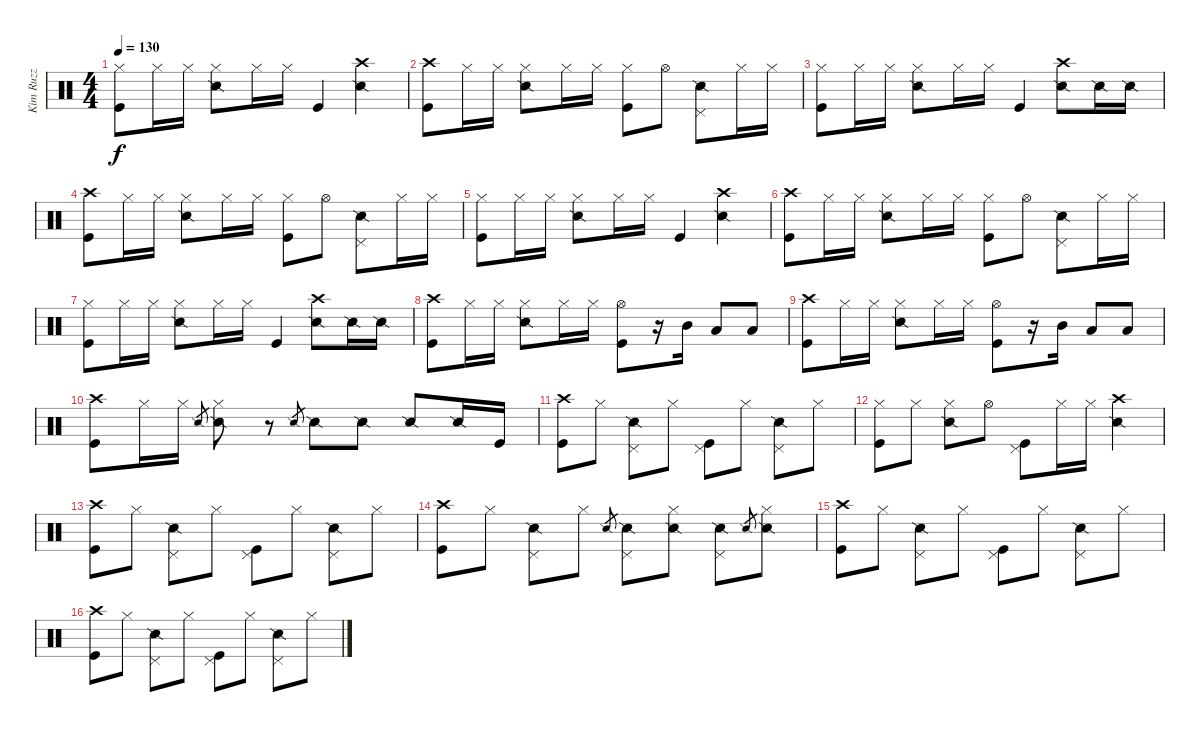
\track ("Kim Ruzz" "Kim Ruzz") {instrument percussion}
\staff {score}
\articulation defaults
\ts (4 4)
\tempo 130
\clef neutral
\ks c
("Hi-Hat (closed)" "Kick (hit)").8{dy f} "Hi-Hat (closed)".16 "Hi-Hat (closed)".16 ("Hi-Hat (closed)" "Snare (side stick) 2").8 "Hi-Hat (closed)".16 "Hi-Hat (closed)".16 "Kick (hit)".4 ("Crash high (hit)" "Snare (side stick) 2").4 |
("Crash high (hit)" "Kick (hit)").8 "Hi-Hat (closed)".16 "Hi-Hat (closed)".16 ("Hi-Hat (closed)" "Snare (side stick) 2").8 "Hi-Hat (closed)".16 "Hi-Hat (closed)".16 ("Hi-Hat (closed)" "Kick (hit)").8 "Hi-Hat (open)".8 ("Pedal Hi-Hat (hit)" "Snare (side stick) 2").8 "Hi-Hat (closed)".16 "Hi-Hat (closed)".16 |
("Hi-Hat (closed)" "Kick (hit)").8 "Hi-Hat (closed)".16 "Hi-Hat (closed)".16 ("Hi-Hat (closed)" "Snare (side stick) 2").8 "Hi-Hat (closed)".16 "Hi-Hat (closed)".16 "Kick (hit)".4 ("Crash high (hit)" "Snare (side stick) 2").8 "Snare (side stick) 2".16 "Snare (side stick) 2".16 |
("Crash high (hit)" "Kick (hit)").8 "Hi-Hat (closed)".16 "Hi-Hat (closed)".16 ("Hi-Hat (closed)" "Snare (side stick) 2").8 "Hi-Hat (closed)".16 "Hi-Hat (closed)".16 ("Hi-Hat (closed)" "Kick (hit)").8 "Hi-Hat (open)".8 ("Pedal Hi-Hat (hit)" "Snare (side stick) 2").8 "Hi-Hat (closed)".16 "Hi-Hat (closed)".16 |
("Hi-Hat (closed)" "Kick (hit)").8 "Hi-Hat (closed)".16 "Hi-Hat (closed)".16 ("Hi-Hat (closed)" "Snare (side stick) 2").8 "Hi-Hat (closed)".16 "Hi-Hat (closed)".16 "Kick (hit)".4 ("Crash high (hit)" "Snare (side stick) 2").4 |
("Crash high (hit)" "Kick (hit)").8 "Hi-Hat (closed)".16 "Hi-Hat (closed)".16 ("Hi-Hat (closed)" "Snare (side stick) 2").8 "Hi-Hat (closed)".16 "Hi-Hat (closed)".16 ("Hi-Hat (closed)" "Kick (hit)").8 "Hi-Hat (open)".8 ("Pedal Hi-Hat (hit)" "Snare (side stick) 2").8 "Hi-Hat (closed)".16 "Hi-Hat (closed)".16 |
("Hi-Hat (closed)" "Kick (hit)").8 "Hi-Hat (closed)".16 "Hi-Hat (closed)".16 ("Hi-Hat (closed)" "Snare (side stick) 2").8 "Hi-Hat (closed)".16 "Hi-Hat (closed)".16 "Kick (hit)".4 ("Crash high (hit)" "Snare (side stick) 2").8 "Snare (side stick) 2".16 "Snare (side stick) 2".16 |
("Crash high (hit)" "Kick (hit)").8 "Hi-Hat (closed)".16 "Hi-Hat (closed)".16 ("Hi-Hat (closed)" "Snare (side stick) 2").8 "Hi-Hat (closed)".16 "Hi-Hat (closed)".16 ("Hi-Hat (open)" "Kick (hit)").8 r.16 "Mid Tom (hit)".16 "Low Tom (hit)".8 "Low Tom (hit)".8 |
("Crash high (hit)" "Kick (hit)").8 "Hi-Hat (closed)".16 "Hi-Hat (closed)".16 ("Hi-Hat (closed)" "Snare (side stick) 2").8 "Hi-Hat (closed)".16 "Hi-Hat (closed)".16 ("Hi-Hat (open)" "Kick (hit)").8 r.16 "Mid Tom (hit)".16 "Low Tom (hit)".8 "Low Tom (hit)".8 |
("Crash high (hit)" "Kick (hit)").8 "Hi-Hat (closed)".16 "Hi-Hat (closed)".16 "Snare (side stick) 2".8{gr} ("Hi-Hat (closed)" "Snare (side stick) 2").8 r.8 "Snare (side stick) 2".8{gr} "Snare (side stick) 2".8 "Snare (side stick) 2".8 "Snare (side stick) 2".8 "Snare (side stick) 2".16 "Kick (hit)".16 |
("Crash high (hit)" "Kick (hit)").8 "Hi-Hat (closed)".8 ("Pedal Hi-Hat (hit)" "Snare (side stick) 2").8 "Hi-Hat (closed)".8 ("Pedal Hi-Hat (hit)" "Kick (hit)").8 "Hi-Hat (closed)".8 ("Pedal Hi-Hat (hit)" "Snare (side stick) 2").8 "Hi-Hat (closed)".8 |
("Hi-Hat (closed)" "Kick (hit)").8 "Hi-Hat (closed)".8 ("Hi-Hat (closed)" "Snare (side stick) 2").8 "Hi-Hat (open)".8 ("Pedal Hi-Hat (hit)" "Kick (hit)").8 "Hi-Hat (closed)".16 "Hi-Hat (closed)".16 ("Crash high (hit)" "Snare (side stick) 2").4 |
("Crash high (hit)" "Kick (hit)").8 "Hi-Hat (closed)".8 ("Pedal Hi-Hat (hit)" "Snare (side stick) 2").8 "Hi-Hat (closed)".8 ("Pedal Hi-Hat (hit)" "Kick (hit)").8 "Hi-Hat (closed)".8 ("Pedal Hi-Hat (hit)" "Snare (side stick) 2").8 "Hi-Hat (closed)".8 |
("Crash high (hit)" "Kick (hit)").8 "Hi-Hat (closed)".8 ("Pedal Hi-Hat (hit)" "Snare (side stick) 2").8 "Hi-Hat (closed)".8 "Snare (side stick) 2".8{gr} ("Pedal Hi-Hat (hit)" "Snare (side stick) 2").8 ("Hi-Hat (closed)" "Snare (side stick) 2").8 ("Pedal Hi-Hat (hit)" "Snare (side stick) 2").8 "Snare (side stick) 2".8{gr} ("Hi-Hat (closed)" "Snare (side stick) 2").8 |
("Crash high (hit)" "Kick (hit)").8 "Hi-Hat (closed)".8 ("Pedal Hi-Hat (hit)" "Snare (side stick) 2").8 "Hi-Hat (closed)".8 ("Pedal Hi-Hat (hit)" "Kick (hit)").8 "Hi-Hat (closed)".8 ("Pedal Hi-Hat (hit)" "Snare (side stick) 2").8 "Hi-Hat (closed)".8 |
("Crash high (hit)" "Kick (hit)").8 "Hi-Hat (closed)".8 ("Pedal Hi-Hat (hit)" "Snare (side stick) 2").8 "Hi-Hat (closed)".8 ("Pedal Hi-Hat (hit)" "Kick (hit)").8 "Hi-Hat (closed)".8 ("Pedal Hi-Hat (hit)" "Snare (side stick) 2").8 "Hi-Hat (closed)".8
